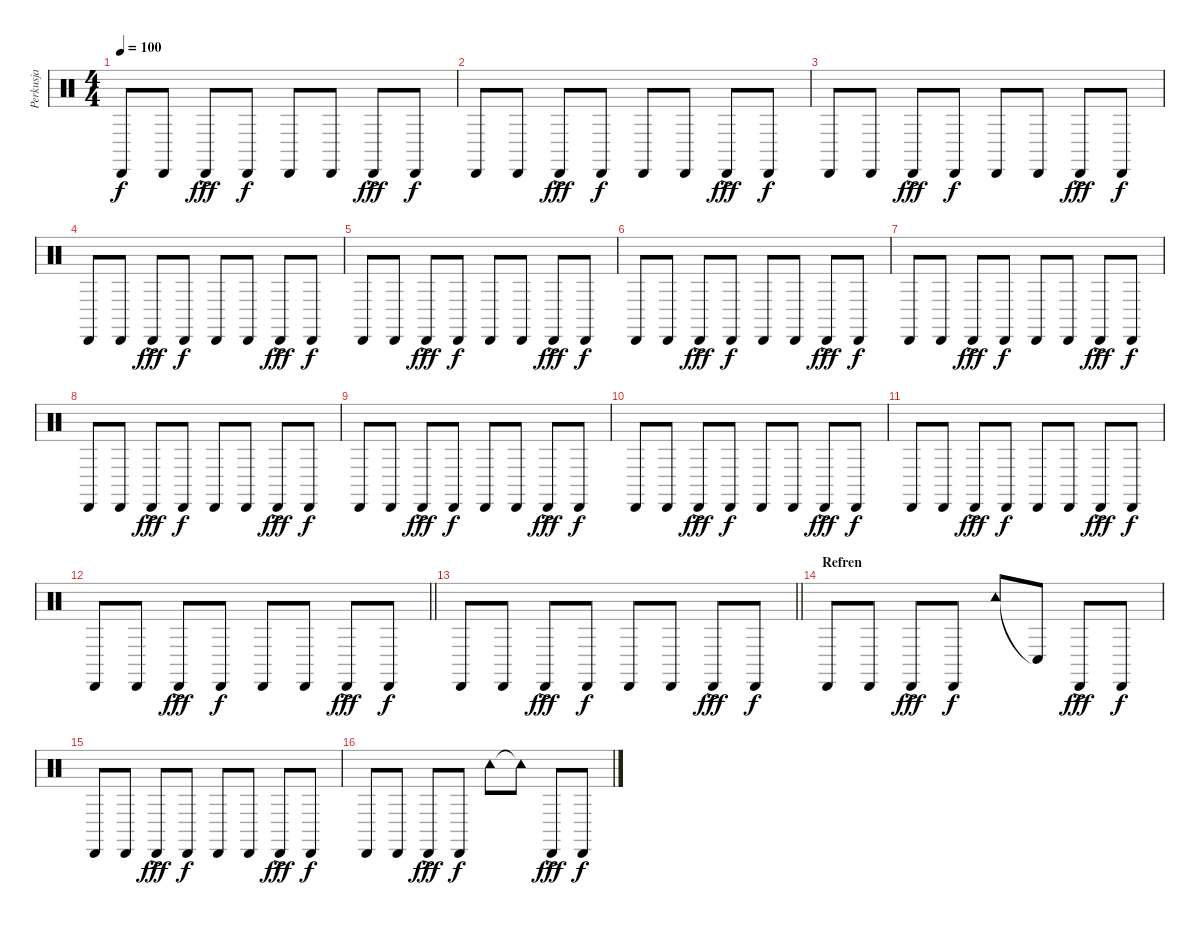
\track ("Perkusja" "Perkusja") {instrument percussion}
\staff {score}
\articulation defaults
\ts (4 4)
\tempo 100
\clef neutral
\ks c "Cabasa (hit)".8{dy f} "Cabasa (hit)".8 "Cabasa (hit)"{ac}.8{dy fff} "Cabasa (hit)".8{dy f} "Cabasa (hit)".8 "Cabasa (hit)".8 "Cabasa (hit)"{ac}.8{dy fff} "Cabasa (hit)".8{dy f}
|
"Cabasa (hit)".8 "Cabasa (hit)".8 "Cabasa (hit)"{ac}.8{dy fff} "Cabasa (hit)".8{dy f} "Cabasa (hit)".8 "Cabasa (hit)".8 "Cabasa (hit)"{ac}.8{dy fff} "Cabasa (hit)".8{dy f} |
"Cabasa (hit)".8 "Cabasa (hit)".8 "Cabasa (hit)"{ac}.8{dy fff} "Cabasa (hit)".8{dy f} "Cabasa (hit)".8 "Cabasa (hit)".8 "Cabasa (hit)"{ac}.8{dy fff} "Cabasa (hit)".8{dy f} |
"Cabasa (hit)".8 "Cabasa (hit)".8 "Cabasa (hit)"{ac}.8{dy fff} "Cabasa (hit)".8{dy f} "Cabasa (hit)".8 "Cabasa (hit)".8 "Cabasa (hit)"{ac}.8{dy fff} "Cabasa (hit)".8{dy f} |
"Cabasa (hit)".8 "Cabasa (hit)".8 "Cabasa (hit)"{ac}.8{dy fff} "Cabasa (hit)".8{dy f} "Cabasa (hit)".8 "Cabasa (hit)".8 "Cabasa (hit)"{ac}.8{dy fff} "Cabasa (hit)".8{dy f} |
"Cabasa (hit)".8 "Cabasa (hit)".8 "Cabasa (hit)"{ac}.8{dy fff} "Cabasa (hit)".8{dy f} "Cabasa (hit)".8 "Cabasa (hit)".8 "Cabasa (hit)"{ac}.8{dy fff} "Cabasa (hit)".8{dy f} |
"Cabasa (hit)".8 "Cabasa (hit)".8 "Cabasa (hit)"{ac}.8{dy fff} "Cabasa (hit)".8{dy f} "Cabasa (hit)".8 "Cabasa (hit)".8 "Cabasa (hit)"{ac}.8{dy fff} "Cabasa (hit)".8{dy f} |
"Cabasa (hit)".8 "Cabasa (hit)".8 "Cabasa (hit)"{ac}.8{dy fff} "Cabasa (hit)".8{dy f} "Cabasa (hit)".8 "Cabasa (hit)".8 "Cabasa (hit)"{ac}.8{dy fff} "Cabasa (hit)".8{dy f} |
"Cabasa (hit)".8 "Cabasa (hit)".8 "Cabasa (hit)"{ac}.8{dy fff} "Cabasa (hit)".8{dy f} "Cabasa (hit)".8 "Cabasa (hit)".8 "Cabasa (hit)"{ac}.8{dy fff} "Cabasa (hit)".8{dy f} |
"Cabasa (hit)".8 "Cabasa (hit)".8 "Cabasa (hit)"{ac}.8{dy fff} "Cabasa (hit)".8{dy f} "Cabasa (hit)".8 "Cabasa (hit)".8 "Cabasa (hit)"{ac}.8{dy fff} "Cabasa (hit)".8{dy f} |
"Cabasa (hit)".8 "Cabasa (hit)".8 "Cabasa (hit)"{ac}.8{dy fff} "Cabasa (hit)".8{dy f} "Cabasa (hit)".8 "Cabasa (hit)".8 "Cabasa (hit)"{ac}.8{dy fff} "Cabasa (hit)".8{dy f} |
\barLineRight lightlight "Cabasa (hit)".8 "Cabasa (hit)".8 "Cabasa (hit)"{ac}.8{dy fff} "Cabasa (hit)".8{dy f} "Cabasa (hit)".8 "Cabasa (hit)".8 "Cabasa (hit)"{ac}.8{dy fff} "Cabasa (hit)".8{dy f}
|
\barLineRight lightlight "Cabasa (hit)".8 "Cabasa (hit)".8 "Cabasa (hit)"{ac}.8{dy fff} "Cabasa (hit)".8{dy f} "Cabasa (hit)".8 "Cabasa (hit)".8 "Cabasa (hit)"{ac}.8{dy fff} "Cabasa (hit)".8{dy f}
|
\section ("" "Refren")
"Cabasa (hit)".8 "Cabasa (hit)".8 "Cabasa (hit)"{ac}.8{dy fff} "Cabasa (hit)".8{dy f} "Tambourine (hit)".8 "Conga low (hit)"{t}.8 "Cabasa (hit)"{ac}.8{dy fff} "Cabasa (hit)".8{dy f} |
"Cabasa (hit)".8 "Cabasa (hit)".8 "Cabasa (hit)"{ac}.8{dy fff} "Cabasa (hit)".8{dy f} "Cabasa (hit)".8 "Cabasa (hit)".8 "Cabasa (hit)"{ac}.8{dy fff} "Cabasa (hit)".8{dy f} |
"Cabasa (hit)".8 "Cabasa (hit)".8 "Cabasa (hit)"{ac}.8{dy fff} "Cabasa (hit)".8{dy f} "Tambourine (hit)".8 "Tambourine (hit)"{t}.8 "Cabasa (hit)"{ac}.8{dy fff} "Cabasa (hit)".8{dy f}
